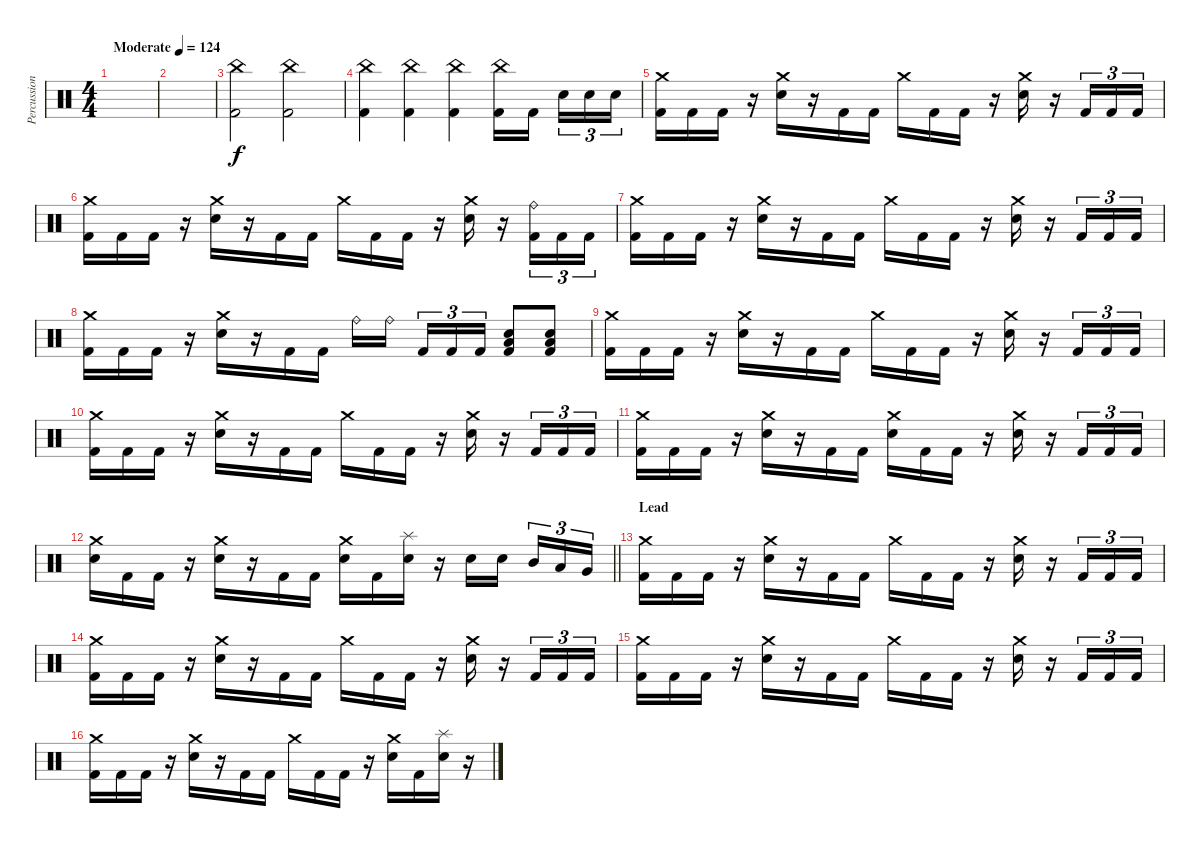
\track ("Percussion" "Percussion") {instrument percussion}
\staff {score}
\articulation defaults
\ts (4 4)
\tempo (124 "Moderate")
\clef neutral
\ks c
|
|
("China (hit)" "Kick (hit) 2").2 ("China (hit)" "Kick (hit) 2").2 |
("China (hit)" "Kick (hit) 2").4 ("China (hit)" "Kick (hit) 2").4 ("China (hit)" "Kick (hit) 2").4 ("China (hit)" "Kick (hit) 2").16 "Kick (hit) 2".16{beam splitsecondary} "Electric Snare (hit)".16{tu (3 2)} "Electric Snare (hit)".16{tu (3 2)} "Electric Snare (hit)".16{tu (3 2)} |
("Crash medium (hit)" "Kick (hit) 2").16 "Kick (hit) 2".16 "Kick (hit) 2".16 r.16 ("Crash medium (hit)" "Electric Snare (hit)").16 r.16 "Kick (hit) 2".16 "Kick (hit) 2".16 "Crash medium (hit)".16 "Kick (hit) 2".16 "Kick (hit) 2".16 r.16 ("Crash medium (hit)" "Electric Snare (hit)").16 r.16 "Kick (hit) 2".16{tu (3 2)} "Kick (hit) 2".16{tu (3 2)} "Kick (hit) 2".16{tu (3 2)} |
("Crash medium (hit)" "Kick (hit) 2").16 "Kick (hit) 2".16 "Kick (hit) 2".16 r.16 ("Crash medium (hit)" "Electric Snare (hit)").16 r.16 "Kick (hit) 2".16 "Kick (hit) 2".16 "Crash medium (hit)".16 "Kick (hit) 2".16 "Kick (hit) 2".16 r.16 ("Crash medium (hit)" "Electric Snare (hit)").16 r.16 ("Ride (bell)" "Kick (hit) 2").16{tu (3 2)} "Kick (hit) 2".16{tu (3 2)} "Kick (hit) 2".16{tu (3 2)} |
("Crash medium (hit)" "Kick (hit) 2").16 "Kick (hit) 2".16 "Kick (hit) 2".16 r.16 ("Crash medium (hit)" "Electric Snare (hit)").16 r.16 "Kick (hit) 2".16 "Kick (hit) 2".16 "Crash medium (hit)".16 "Kick (hit) 2".16 "Kick (hit) 2".16 r.16 ("Crash medium (hit)" "Electric Snare (hit)").16 r.16 "Kick (hit) 2".16{tu (3 2)} "Kick (hit) 2".16{tu (3 2)} "Kick (hit) 2".16{tu (3 2)} |
("Crash medium (hit)" "Kick (hit) 2").16 "Kick (hit) 2".16 "Kick (hit) 2".16 r.16 ("Crash medium (hit)" "Electric Snare (hit)").16 r.16 "Kick (hit) 2".16 "Kick (hit) 2".16 "Ride (bell)".16 "Ride (bell)".16{beam splitsecondary} "Kick (hit) 2".16{tu (3 2)} "Kick (hit) 2".16{tu (3 2)} "Kick (hit) 2".16{tu (3 2)} ("Electric Snare (hit)" "Low Tom (hit)" "Kick (hit) 2").8 ("Electric Snare (hit)" "Low Tom (hit)" "Kick (hit) 2").8 |
("Crash medium (hit)" "Kick (hit) 2").16 "Kick (hit) 2".16 "Kick (hit) 2".16 r.16 ("Crash medium (hit)" "Electric Snare (hit)").16 r.16 "Kick (hit) 2".16 "Kick (hit) 2".16 "Crash medium (hit)".16 "Kick (hit) 2".16 "Kick (hit) 2".16 r.16 ("Crash medium (hit)" "Electric Snare (hit)").16 r.16 "Kick (hit) 2".16{tu (3 2)} "Kick (hit) 2".16{tu (3 2)} "Kick (hit) 2".16{tu (3 2)} |
("Crash medium (hit)" "Kick (hit) 2").16 "Kick (hit) 2".16 "Kick (hit) 2".16 r.16 ("Crash medium (hit)" "Electric Snare (hit)").16 r.16 "Kick (hit) 2".16 "Kick (hit) 2".16 "Crash medium (hit)".16 "Kick (hit) 2".16 "Kick (hit) 2".16 r.16 ("Crash medium (hit)" "Electric Snare (hit)").16 r.16 "Kick (hit) 2".16{tu (3 2)} "Kick (hit) 2".16{tu (3 2)} "Kick (hit) 2".16{tu (3 2)} |
("Crash medium (hit)" "Kick (hit) 2").16 "Kick (hit) 2".16 "Kick (hit) 2".16 r.16 ("Crash medium (hit)" "Electric Snare (hit)").16 r.16 "Kick (hit) 2".16 "Kick (hit) 2".16 ("Crash medium (hit)" "Electric Snare (hit)").16 "Kick (hit) 2".16 "Kick (hit) 2".16 r.16 ("Crash medium (hit)" "Electric Snare (hit)").16 r.16 "Kick (hit) 2".16{tu (3 2)} "Kick (hit) 2".16{tu (3 2)} "Kick (hit) 2".16{tu (3 2)} |
\barLineRight lightlight
("Crash medium (hit)" "Electric Snare (hit)").16 "Kick (hit) 2".16 "Kick (hit) 2".16 r.16 ("Crash medium (hit)" "Electric Snare (hit)").16 r.16 "Kick (hit) 2".16 "Kick (hit) 2".16 ("Crash medium (hit)" "Electric Snare (hit)").16 "Kick (hit) 2".16 ("Splash (hit)" "Electric Snare (hit)").16 r.16 "Electric Snare (hit)".16 "Electric Snare (hit)".16{beam splitsecondary} "Mid Tom (hit)".16{tu (3 2)} "Low Tom (hit)".16{tu (3 2)} "Very Low Tom (hit)".16{tu (3 2)} |
\section ("" "Lead")
("Crash medium (hit)" "Kick (hit) 2").16 "Kick (hit) 2".16 "Kick (hit) 2".16 r.16 ("Crash medium (hit)" "Electric Snare (hit)").16 r.16 "Kick (hit) 2".16 "Kick (hit) 2".16 "Crash medium (hit)".16 "Kick (hit) 2".16 "Kick (hit) 2".16 r.16 ("Crash medium (hit)" "Electric Snare (hit)").16 r.16 "Kick (hit) 2".16{tu (3 2)} "Kick (hit) 2".16{tu (3 2)} "Kick (hit) 2".16{tu (3 2)} |
("Crash medium (hit)" "Kick (hit) 2").16 "Kick (hit) 2".16 "Kick (hit) 2".16 r.16 ("Crash medium (hit)" "Electric Snare (hit)").16 r.16 "Kick (hit) 2".16 "Kick (hit) 2".16 "Crash medium (hit)".16 "Kick (hit) 2".16 "Kick (hit) 2".16 r.16 ("Crash medium (hit)" "Electric Snare (hit)").16 r.16 "Kick (hit) 2".16{tu (3 2)} "Kick (hit) 2".16{tu (3 2)} "Kick (hit) 2".16{tu (3 2)} |
("Crash medium (hit)" "Kick (hit) 2").16 "Kick (hit) 2".16 "Kick (hit) 2".16 r.16 ("Crash medium (hit)" "Electric Snare (hit)").16 r.16 "Kick (hit) 2".16 "Kick (hit) 2".16 "Crash medium (hit)".16 "Kick (hit) 2".16 "Kick (hit) 2".16 r.16 ("Crash medium (hit)" "Electric Snare (hit)").16 r.16 "Kick (hit) 2".16{tu (3 2)} "Kick (hit) 2".16{tu (3 2)} "Kick (hit) 2".16{tu (3 2)} |
("Crash medium (hit)" "Kick (hit) 2").16 "Kick (hit) 2".16 "Kick (hit) 2".16 r.16 ("Crash medium (hit)" "Electric Snare (hit)").16 r.16 "Kick (hit) 2".16 "Kick (hit) 2".16 "Crash medium (hit)".16 "Kick (hit) 2".16 "Kick (hit) 2".16 r.16 ("Crash medium (hit)" "Electric Snare (hit)").16 "Kick (hit) 2".16 ("Splash (hit)" "Electric Snare (hit)").16 r.16
